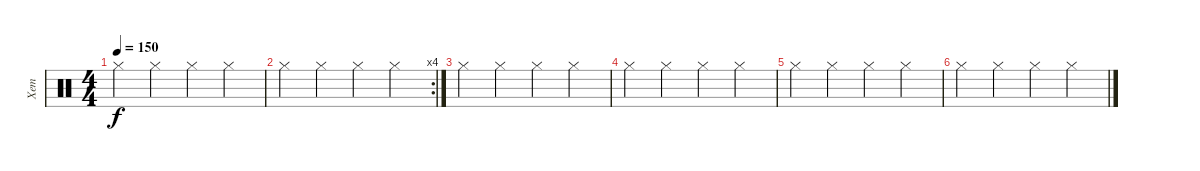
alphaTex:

\track ("Хет" "Хет") {instrument percussion}
\staff {score}
\articulation defaults
\ts (4 4)
\tempo 150
\clef neutral
\ks c "Hi-Hat (closed)".4{dy f} "Hi-Hat (closed)".4 "Hi-Hat (closed)".4 "Hi-Hat (closed)".4
|
\rc 4 "Hi-Hat (closed)".4 "Hi-Hat (closed)".4 "Hi-Hat (closed)".4 "Hi-Hat (closed)".4
|
"Hi-Hat (closed)".4 "Hi-Hat (closed)".4 "Hi-Hat (closed)".4 "Hi-Hat (closed)".4 |
"Hi-Hat (closed)".4 "Hi-Hat (closed)".4 "Hi-Hat (closed)".4 "Hi-Hat (closed)".4 |
"Hi-Hat (closed)".4 "Hi-Hat (closed)".4 "Hi-Hat (closed)".4 "Hi-Hat (closed)".4 |
"Hi-Hat (closed)".4 "Hi-Hat (closed)".4 "Hi-Hat (closed)".4 "Hi-Hat (closed)".4
